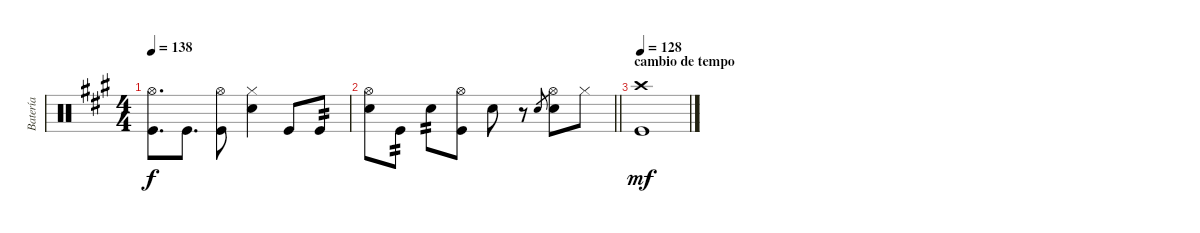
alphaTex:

\track ("Batería" "Batería") {instrument percussion}
\staff {score}
\articulation defaults
\ts (4 4)
\tempo 138
\clef neutral
\ks a
("Hi-Hat (open)" "Kick (hit)").8{d dy f} "Kick (hit)".8{d} ("Hi-Hat (open)" "Kick (hit)").8 ("Hi-Hat (closed)" "Electric Snare (hit)").4 "Kick (hit)".8 "Kick (hit)".8{tp 2} |
\barLineRight lightlight
("Hi-Hat (open)" "Electric Snare (hit)").8 "Kick (hit)".8{tp 2} "Electric Snare (hit)".8{tp 2} ("Hi-Hat (open)" "Kick (hit)").8 "Electric Snare (hit)".8 r.8 "Electric Snare (hit)".8{gr} ("Hi-Hat (open)" "Electric Snare (hit)").8 "Hi-Hat (closed)".8 |
\section ("" "cambio de tempo")
\tempo 128
("Crash high (hit)" "Kick (hit)").1{dy mf}
